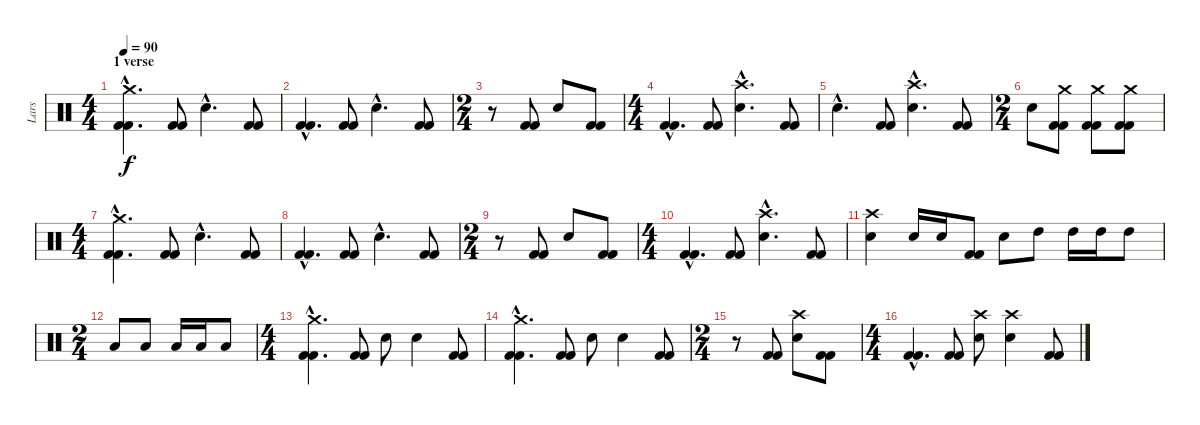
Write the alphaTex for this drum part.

\track ("Lars" "Lars") {instrument percussion}
\staff {score}
\articulation defaults
\ts (4 4)
\section ("" "1 verse")
\tempo 90
\clef neutral
\ks c
("Crash medium (hit)"{hac} "Kick (hit) 2"{hac} "Kick (hit) 2"{hac}).4{d dy f} ("Kick (hit) 2" "Kick (hit) 2").8 "Snare (hit) 2"{hac}.4{d} ("Kick (hit) 2" "Kick (hit) 2").8 |
("Kick (hit) 2"{hac} "Kick (hit) 2"{hac}).4{d} ("Kick (hit) 2" "Kick (hit) 2").8 "Snare (hit) 2"{hac}.4{d} ("Kick (hit) 2" "Kick (hit) 2").8 |
\ts (2 4)
r.8 ("Kick (hit) 2" "Kick (hit) 2").8 "Snare (hit) 2".8 ("Kick (hit) 2" "Kick (hit) 2").8 |
\ts (4 4)
("Kick (hit) 2"{hac} "Kick (hit) 2"{hac}).4{d} ("Kick (hit) 2" "Kick (hit) 2").8 ("Snare (hit) 2"{hac} "Crash high (hit)"{hac}).4{d} ("Kick (hit) 2" "Kick (hit) 2").8 |
"Snare (hit) 2"{hac}.4{d} ("Kick (hit) 2" "Kick (hit) 2").8 ("Snare (hit) 2"{hac} "Crash high (hit)"{hac}).4{d} ("Kick (hit) 2" "Kick (hit) 2").8 |
\ts (2 4)
"Snare (hit) 2".8 ("Crash medium (hit)" "Kick (hit) 2" "Kick (hit) 2").8 ("Crash medium (hit)" "Kick (hit) 2" "Kick (hit) 2").8 ("Crash medium (hit)" "Kick (hit) 2" "Kick (hit) 2").8 |
\ts (4 4)
("Crash medium (hit)"{hac} "Kick (hit) 2"{hac} "Kick (hit) 2"{hac}).4{d} ("Kick (hit) 2" "Kick (hit) 2").8 "Snare (hit) 2"{hac}.4{d} ("Kick (hit) 2" "Kick (hit) 2").8 |
("Kick (hit) 2"{hac} "Kick (hit) 2"{hac}).4{d} ("Kick (hit) 2" "Kick (hit) 2").8 "Snare (hit) 2"{hac}.4{d} ("Kick (hit) 2" "Kick (hit) 2").8 |
\ts (2 4)
r.8 ("Kick (hit) 2" "Kick (hit) 2").8 "Snare (hit) 2".8 ("Kick (hit) 2" "Kick (hit) 2").8 |
\ts (4 4)
("Kick (hit) 2"{hac} "Kick (hit) 2"{hac}).4{d} ("Kick (hit) 2" "Kick (hit) 2").8 ("Snare (hit) 2"{hac} "Crash high (hit)"{hac}).4{d} ("Kick (hit) 2" "Kick (hit) 2").8 |
("Snare (hit) 2" "Crash high (hit)").4 "Snare (hit) 2".16 "Snare (hit) 2".16 ("Kick (hit) 2" "Kick (hit) 2").8 "Snare (hit) 2".8 "High Tom (hit)".8 "High Tom (hit)".16 "High Tom (hit)".16 "High Tom (hit)".8 |
\ts (2 4)
"Low Floor Tom (hit)".8 "Low Floor Tom (hit)".8 "Low Floor Tom (hit)".16 "Low Floor Tom (hit)".16 "Low Floor Tom (hit)".8 |
\ts (4 4)
("Crash medium (hit)"{hac} "Kick (hit) 2"{hac} "Kick (hit) 2"{hac}).4{d} ("Kick (hit) 2" "Kick (hit) 2").8 "Snare (hit) 2".8 "Snare (hit) 2".4 ("Kick (hit) 2" "Kick (hit) 2").8 |
("Crash medium (hit)"{hac} "Kick (hit) 2"{hac} "Kick (hit) 2"{hac}).4{d} ("Kick (hit) 2" "Kick (hit) 2").8 "Snare (hit) 2".8 "Snare (hit) 2".4 ("Kick (hit) 2" "Kick (hit) 2").8 |
\ts (2 4)
r.8 ("Kick (hit) 2" "Kick (hit) 2").8 ("Snare (hit) 2" "Crash high (hit)").8 ("Kick (hit) 2" "Kick (hit) 2").8 |
\ts (4 4)
("Kick (hit) 2"{hac} "Kick (hit) 2"{hac}).4{d} ("Kick (hit) 2" "Kick (hit) 2").8 ("Snare (hit) 2" "Crash high (hit)").8 ("Snare (hit) 2" "Crash high (hit)").4 ("Kick (hit) 2" "Kick (hit) 2").8
